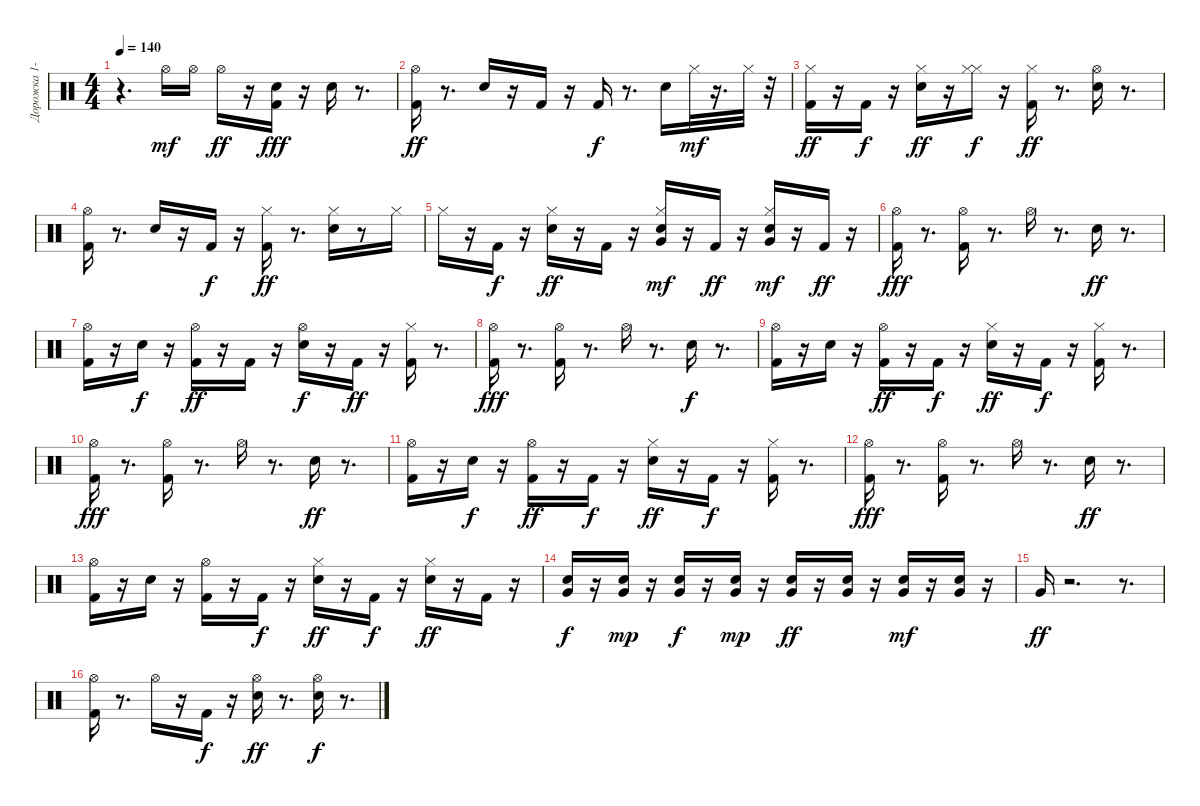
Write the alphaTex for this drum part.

\track ("Дорожка 1-2" "Дорожка 1-") {instrument percussion}
\staff {score}
\articulation defaults
\ts (4 4)
\tempo 140
\clef neutral
\ks c
r.4{d dy ff} "Hi-Hat (open)".16{dy mf} "Hi-Hat (open)".16 "Hi-Hat (open)".16{dy ff} r.16 ("Electric Snare (hit)" "Kick (hit) 2").16{dy fff} r.16 "Electric Snare (hit)".16 r.8{d} |
("Hi-Hat (open)" "Kick (hit) 2").16{dy ff} r.8{d} "Electric Snare (hit)".16 r.16 "Kick (hit) 2".16 r.16 "Kick (hit) 2".16{dy f} r.8{d} "Electric Snare (hit)".16 "Hi-Hat (closed)".32{dy mf} r.16{d} "Hi-Hat (closed)".32 r.32 |
("Kick (hit) 2" "Hi-Hat (closed)").16{dy ff} r.16 "Kick (hit) 2".16{dy f} r.16 ("Electric Snare (hit)" "Hi-Hat (closed)").16{dy ff} r.16 ("Hi-Hat (closed)" "Hi-Hat (closed)").16{dy f} r.16 ("Hi-Hat (closed)" "Kick (hit) 2").16{dy ff} r.8{d} ("Electric Snare (hit)" "Hi-Hat (open)").16 r.8{d} |
("Hi-Hat (open)" "Kick (hit) 2").16 r.8{d} "Electric Snare (hit)".16 r.16 "Kick (hit) 2".16{dy f} r.16 ("Hi-Hat (closed)" "Kick (hit) 2").16{dy ff} r.8{d} ("Hi-Hat (closed)" "Electric Snare (hit)").16 r.8 "Hi-Hat (closed)".16 |
"Hi-Hat (closed)".16 r.16 "Kick (hit) 2".16{dy f} r.16 ("Hi-Hat (closed)" "Electric Snare (hit)").16{dy ff} r.16 "Kick (hit) 2".16 r.16 ("Electric Snare (hit)" "Hi-Hat (closed)" "Very Low Tom (hit)").16{dy mf} r.16 "Kick (hit) 2".16{dy ff} r.16 ("Electric Snare (hit)" "Hi-Hat (closed)" "Very Low Tom (hit)").16{dy mf} r.16 "Kick (hit) 2".16{dy ff} r.16 |
("Kick (hit) 2" "Hi-Hat (open)").16{dy fff} r.8{d} ("Kick (hit) 2" "Hi-Hat (open)").16 r.8{d} "Hi-Hat (open)".16 r.8{d} "Electric Snare (hit)".16{dy ff} r.8{d} |
("Kick (hit) 2" "Hi-Hat (open)").16 r.16 "Electric Snare (hit)".16{dy f} r.16 ("Kick (hit) 2" "Hi-Hat (open)").16{dy ff} r.16 "Kick (hit) 2".16 r.16 ("Electric Snare (hit)" "Hi-Hat (open)").16{dy f} r.16 "Kick (hit) 2".16{dy ff} r.16 ("Kick (hit) 2" "Hi-Hat (closed)").16 r.8{d} |
("Kick (hit) 2" "Hi-Hat (open)").16{dy fff} r.8{d} ("Kick (hit) 2" "Hi-Hat (open)").16 r.8{d} "Hi-Hat (open)".16 r.8{d} "Electric Snare (hit)".16{dy f} r.8{d} |
("Kick (hit) 2" "Hi-Hat (open)").16 r.16 "Electric Snare (hit)".16 r.16 ("Kick (hit) 2" "Hi-Hat (open)").16{dy ff} r.16 "Kick (hit) 2".16{dy f} r.16 ("Electric Snare (hit)" "Hi-Hat (closed)").16{dy ff} r.16 "Kick (hit) 2".16{dy f} r.16 ("Kick (hit) 2" "Hi-Hat (closed)").16 r.8{d} |
("Kick (hit) 2" "Hi-Hat (open)").16{dy fff} r.8{d} ("Kick (hit) 2" "Hi-Hat (open)").16 r.8{d} "Hi-Hat (open)".16 r.8{d} "Electric Snare (hit)".16{dy ff} r.8{d} |
("Kick (hit) 2" "Hi-Hat (open)").16 r.16 "Electric Snare (hit)".16{dy f} r.16 ("Kick (hit) 2" "Hi-Hat (open)").16{dy ff} r.16 "Kick (hit) 2".16{dy f} r.16 ("Electric Snare (hit)" "Hi-Hat (closed)").16{dy ff} r.16 "Kick (hit) 2".16{dy f} r.16 ("Kick (hit) 2" "Hi-Hat (closed)").16 r.8{d} |
("Kick (hit) 2" "Hi-Hat (open)").16{dy fff} r.8{d} ("Kick (hit) 2" "Hi-Hat (open)").16 r.8{d} "Hi-Hat (open)".16 r.8{d} "Electric Snare (hit)".16{dy ff} r.8{d} |
("Kick (hit) 2" "Hi-Hat (open)").16 r.16 "Electric Snare (hit)".16 r.16 ("Kick (hit) 2" "Hi-Hat (open)").16 r.16 "Kick (hit) 2".16{dy f} r.16 ("Electric Snare (hit)" "Hi-Hat (closed)").16{dy ff} r.16 "Kick (hit) 2".16{dy f} r.16 ("Electric Snare (hit)" "Hi-Hat (closed)").16{dy ff} r.16 "Kick (hit) 2".16 r.16 |
("Electric Snare (hit)" "Very Low Tom (hit)").16{dy f} r.16 ("Electric Snare (hit)" "Very Low Tom (hit)").16{dy mp} r.16 ("Electric Snare (hit)" "Very Low Tom (hit)").16{dy f} r.16 ("Electric Snare (hit)" "Very Low Tom (hit)").16{dy mp} r.16 ("Electric Snare (hit)" "Very Low Tom (hit)").16{dy ff} r.16 ("Electric Snare (hit)" "Very Low Tom (hit)").16 r.16 ("Electric Snare (hit)" "Very Low Tom (hit)").16{dy mf} r.16 ("Electric Snare (hit)" "Very Low Tom (hit)").16 r.16 |
"Very Low Tom (hit)".16{dy ff} r.2{d} r.8{d} |
("Hi-Hat (open)" "Kick (hit) 2").16 r.8{d} "Hi-Hat (open)".16 r.16 "Kick (hit) 2".16{dy f} r.16 ("Hi-Hat (open)" "Electric Snare (hit)").16{dy ff} r.8{d} ("Hi-Hat (open)" "Electric Snare (hit)").16{dy f} r.8{d}
